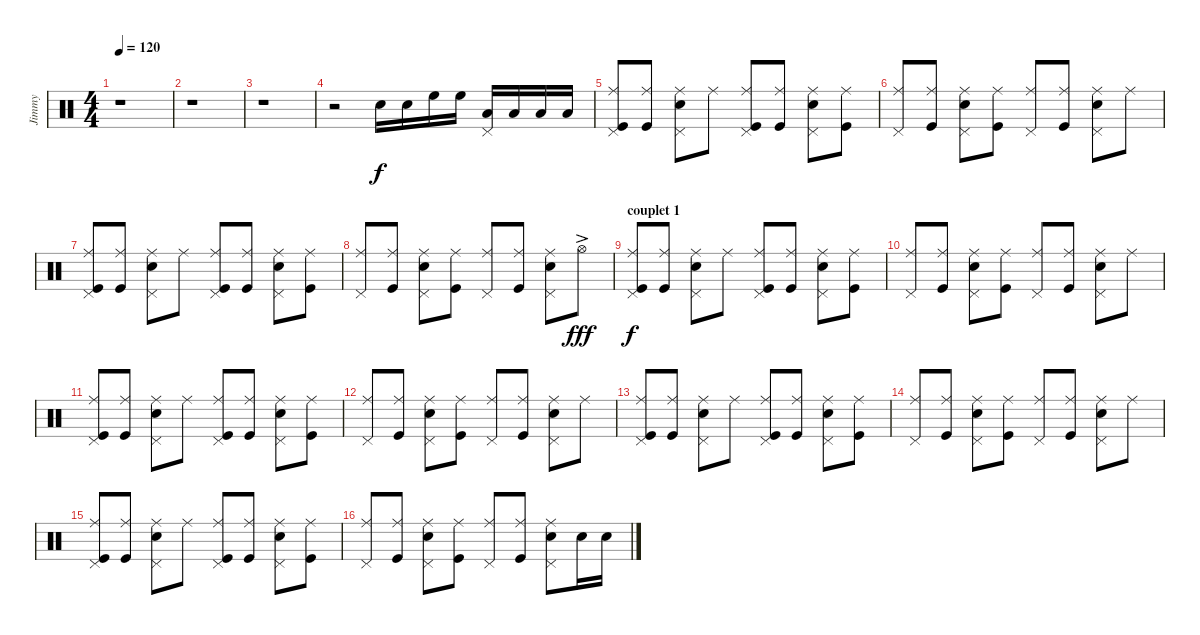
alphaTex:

\track ("Jimmy" "Jimmy") {instrument percussion}
\staff {score}
\articulation defaults
\ts (4 4)
\tempo 120
\clef neutral
\ks c
r.1{dy f} |
r.1 |
r.1 |
r.2 "Snare (hit) 2".16 "Snare (hit) 2".16 "High Floor Tom (hit)".16 "High Floor Tom (hit)".16 ("Pedal Hi-Hat (hit)" "Low Tom (hit)").16 "Low Tom (hit)".16 "Low Floor Tom (hit)".16 "Low Floor Tom (hit)".16 |
\section ("" "")
("Pedal Hi-Hat (hit)" "Ride (middle)" "Kick (hit)").8 ("Ride (middle)" "Kick (hit)").8 ("Pedal Hi-Hat (hit)" "Ride (middle)" "Snare (hit) 2").8 "Ride (middle)".8 ("Pedal Hi-Hat (hit)" "Ride (middle)" "Kick (hit)").8 ("Ride (middle)" "Kick (hit)").8 ("Pedal Hi-Hat (hit)" "Ride (middle)" "Snare (hit) 2").8 ("Ride (middle)" "Kick (hit)").8 |
("Pedal Hi-Hat (hit)" "Ride (middle)").8 ("Ride (middle)" "Kick (hit)").8 ("Pedal Hi-Hat (hit)" "Ride (middle)" "Snare (hit) 2").8 ("Ride (middle)" "Kick (hit)").8 ("Pedal Hi-Hat (hit)" "Ride (middle)").8 ("Ride (middle)" "Kick (hit)").8 ("Pedal Hi-Hat (hit)" "Ride (middle)" "Snare (hit) 2").8 "Ride (middle)".8 |
("Pedal Hi-Hat (hit)" "Ride (middle)" "Kick (hit)").8 ("Ride (middle)" "Kick (hit)").8 ("Pedal Hi-Hat (hit)" "Ride (middle)" "Snare (hit) 2").8 "Ride (middle)".8 ("Pedal Hi-Hat (hit)" "Ride (middle)" "Kick (hit)").8 ("Ride (middle)" "Kick (hit)").8 ("Pedal Hi-Hat (hit)" "Ride (middle)" "Snare (hit) 2").8 ("Ride (middle)" "Kick (hit)").8 |
("Pedal Hi-Hat (hit)" "Ride (middle)").8 ("Ride (middle)" "Kick (hit)").8 ("Pedal Hi-Hat (hit)" "Ride (middle)" "Snare (hit) 2").8 ("Ride (middle)" "Kick (hit)").8 ("Pedal Hi-Hat (hit)" "Ride (middle)").8 ("Ride (middle)" "Kick (hit)").8 ("Pedal Hi-Hat (hit)" "Ride (middle)" "Snare (hit) 2").8 "Hi-Hat (open)"{ac}.8{dy fff} |
\section ("" "couplet 1")
("Pedal Hi-Hat (hit)" "Ride (middle)" "Kick (hit)").8{dy f} ("Ride (middle)" "Kick (hit)").8 ("Pedal Hi-Hat (hit)" "Ride (middle)" "Snare (hit) 2").8 "Ride (middle)".8 ("Pedal Hi-Hat (hit)" "Ride (middle)" "Kick (hit)").8 ("Ride (middle)" "Kick (hit)").8 ("Pedal Hi-Hat (hit)" "Ride (middle)" "Snare (hit) 2").8 ("Ride (middle)" "Kick (hit)").8 |
("Pedal Hi-Hat (hit)" "Ride (middle)").8 ("Ride (middle)" "Kick (hit)").8 ("Pedal Hi-Hat (hit)" "Ride (middle)" "Snare (hit) 2").8 ("Ride (middle)" "Kick (hit)").8 ("Pedal Hi-Hat (hit)" "Ride (middle)").8 ("Ride (middle)" "Kick (hit)").8 ("Pedal Hi-Hat (hit)" "Ride (middle)" "Snare (hit) 2").8 "Ride (middle)".8 |
("Pedal Hi-Hat (hit)" "Ride (middle)" "Kick (hit)").8 ("Ride (middle)" "Kick (hit)").8 ("Pedal Hi-Hat (hit)" "Ride (middle)" "Snare (hit) 2").8 "Ride (middle)".8 ("Pedal Hi-Hat (hit)" "Ride (middle)" "Kick (hit)").8 ("Ride (middle)" "Kick (hit)").8 ("Pedal Hi-Hat (hit)" "Ride (middle)" "Snare (hit) 2").8 ("Ride (middle)" "Kick (hit)").8 |
("Pedal Hi-Hat (hit)" "Ride (middle)").8 ("Ride (middle)" "Kick (hit)").8 ("Pedal Hi-Hat (hit)" "Ride (middle)" "Snare (hit) 2").8 ("Ride (middle)" "Kick (hit)").8 ("Pedal Hi-Hat (hit)" "Ride (middle)").8 ("Ride (middle)" "Kick (hit)").8 ("Pedal Hi-Hat (hit)" "Ride (middle)" "Snare (hit) 2").8 "Ride (middle)".8 |
("Pedal Hi-Hat (hit)" "Ride (middle)" "Kick (hit)").8 ("Ride (middle)" "Kick (hit)").8 ("Pedal Hi-Hat (hit)" "Ride (middle)" "Snare (hit) 2").8 "Ride (middle)".8 ("Pedal Hi-Hat (hit)" "Ride (middle)" "Kick (hit)").8 ("Ride (middle)" "Kick (hit)").8 ("Pedal Hi-Hat (hit)" "Ride (middle)" "Snare (hit) 2").8 ("Ride (middle)" "Kick (hit)").8 |
("Pedal Hi-Hat (hit)" "Ride (middle)").8 ("Ride (middle)" "Kick (hit)").8 ("Pedal Hi-Hat (hit)" "Ride (middle)" "Snare (hit) 2").8 ("Ride (middle)" "Kick (hit)").8 ("Pedal Hi-Hat (hit)" "Ride (middle)").8 ("Ride (middle)" "Kick (hit)").8 ("Pedal Hi-Hat (hit)" "Ride (middle)" "Snare (hit) 2").8 "Ride (middle)".8 |
("Pedal Hi-Hat (hit)" "Ride (middle)" "Kick (hit)").8 ("Ride (middle)" "Kick (hit)").8 ("Pedal Hi-Hat (hit)" "Ride (middle)" "Snare (hit) 2").8 "Ride (middle)".8 ("Pedal Hi-Hat (hit)" "Ride (middle)" "Kick (hit)").8 ("Ride (middle)" "Kick (hit)").8 ("Pedal Hi-Hat (hit)" "Ride (middle)" "Snare (hit) 2").8 ("Ride (middle)" "Kick (hit)").8 |
("Pedal Hi-Hat (hit)" "Ride (middle)").8 ("Ride (middle)" "Kick (hit)").8 ("Pedal Hi-Hat (hit)" "Ride (middle)" "Snare (hit) 2").8 ("Ride (middle)" "Kick (hit)").8 ("Pedal Hi-Hat (hit)" "Ride (middle)").8 ("Ride (middle)" "Kick (hit)").8 ("Pedal Hi-Hat (hit)" "Ride (middle)" "Snare (hit) 2").8 "Snare (hit) 2".16 "Snare (hit) 2".16
